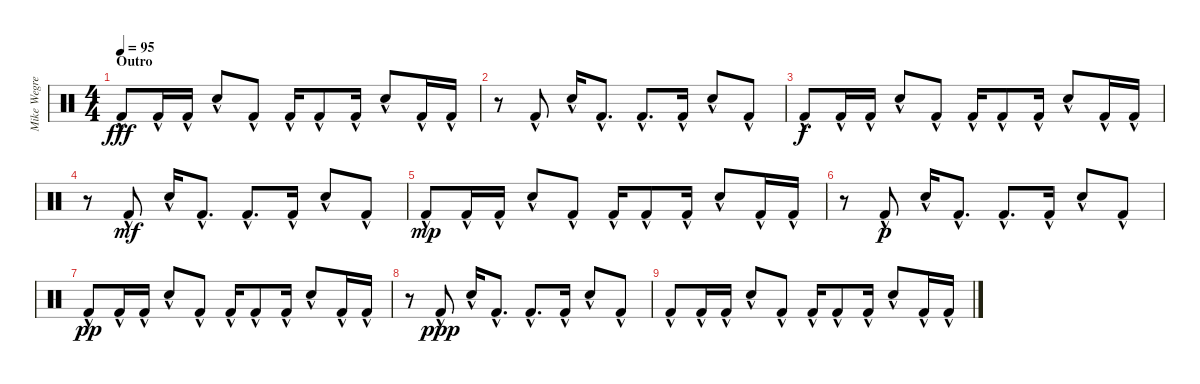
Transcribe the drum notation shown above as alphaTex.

\track ("Mike Wegren 2" "Mike Wegre") {instrument percussion}
\staff {score}
\articulation defaults
\ts (4 4)
\section ("" "Outro")
\tempo 95
\clef neutral
\ks c "Kick (hit) 2"{hac}.8{dy fff} "Kick (hit) 2"{hac}.16 "Kick (hit) 2"{hac}.16 "Snare (hit) 2"{hac}.8 "Kick (hit) 2"{hac}.8 "Kick (hit) 2"{hac}.16 "Kick (hit) 2"{hac}.8 "Kick (hit) 2"{hac}.16 "Snare (hit) 2"{hac}.8 "Kick (hit) 2"{hac}.16 "Kick (hit) 2"{hac}.16
|
r.8 "Kick (hit) 2"{hac}.8 "Snare (hit) 2"{hac}.16 "Kick (hit) 2"{hac}.8{d} "Kick (hit) 2"{hac}.8{d} "Kick (hit) 2"{hac}.16 "Snare (hit) 2"{hac}.8 "Kick (hit) 2"{hac}.8 |
"Kick (hit) 2"{hac}.8{dy f} "Kick (hit) 2"{hac}.16 "Kick (hit) 2"{hac}.16 "Snare (hit) 2"{hac}.8 "Kick (hit) 2"{hac}.8 "Kick (hit) 2"{hac}.16 "Kick (hit) 2"{hac}.8 "Kick (hit) 2"{hac}.16 "Snare (hit) 2"{hac}.8 "Kick (hit) 2"{hac}.16 "Kick (hit) 2"{hac}.16 |
r.8 "Kick (hit) 2"{hac}.8{dy mf} "Snare (hit) 2"{hac}.16 "Kick (hit) 2"{hac}.8{d} "Kick (hit) 2"{hac}.8{d} "Kick (hit) 2"{hac}.16 "Snare (hit) 2"{hac}.8 "Kick (hit) 2"{hac}.8 |
"Kick (hit) 2"{hac}.8{dy mp} "Kick (hit) 2"{hac}.16 "Kick (hit) 2"{hac}.16 "Snare (hit) 2"{hac}.8 "Kick (hit) 2"{hac}.8 "Kick (hit) 2"{hac}.16 "Kick (hit) 2"{hac}.8 "Kick (hit) 2"{hac}.16 "Snare (hit) 2"{hac}.8 "Kick (hit) 2"{hac}.16 "Kick (hit) 2"{hac}.16 |
r.8 "Kick (hit) 2"{hac}.8{dy p} "Snare (hit) 2"{hac}.16 "Kick (hit) 2"{hac}.8{d} "Kick (hit) 2"{hac}.8{d} "Kick (hit) 2"{hac}.16 "Snare (hit) 2"{hac}.8 "Kick (hit) 2"{hac}.8 |
"Kick (hit) 2"{hac}.8{dy pp} "Kick (hit) 2"{hac}.16 "Kick (hit) 2"{hac}.16 "Snare (hit) 2"{hac}.8 "Kick (hit) 2"{hac}.8 "Kick (hit) 2"{hac}.16 "Kick (hit) 2"{hac}.8 "Kick (hit) 2"{hac}.16 "Snare (hit) 2"{hac}.8 "Kick (hit) 2"{hac}.16 "Kick (hit) 2"{hac}.16 |
r.8 "Kick (hit) 2"{hac}.8{dy ppp} "Snare (hit) 2"{hac}.16 "Kick (hit) 2"{hac}.8{d} "Kick (hit) 2"{hac}.8{d} "Kick (hit) 2"{hac}.16 "Snare (hit) 2"{hac}.8 "Kick (hit) 2"{hac}.8 |
"Kick (hit) 2"{hac}.8 "Kick (hit) 2"{hac}.16 "Kick (hit) 2"{hac}.16 "Snare (hit) 2"{hac}.8 "Kick (hit) 2"{hac}.8 "Kick (hit) 2"{hac}.16 "Kick (hit) 2"{hac}.8 "Kick (hit) 2"{hac}.16 "Snare (hit) 2"{hac}.8 "Kick (hit) 2"{hac}.16 "Kick (hit) 2"{hac}.16
